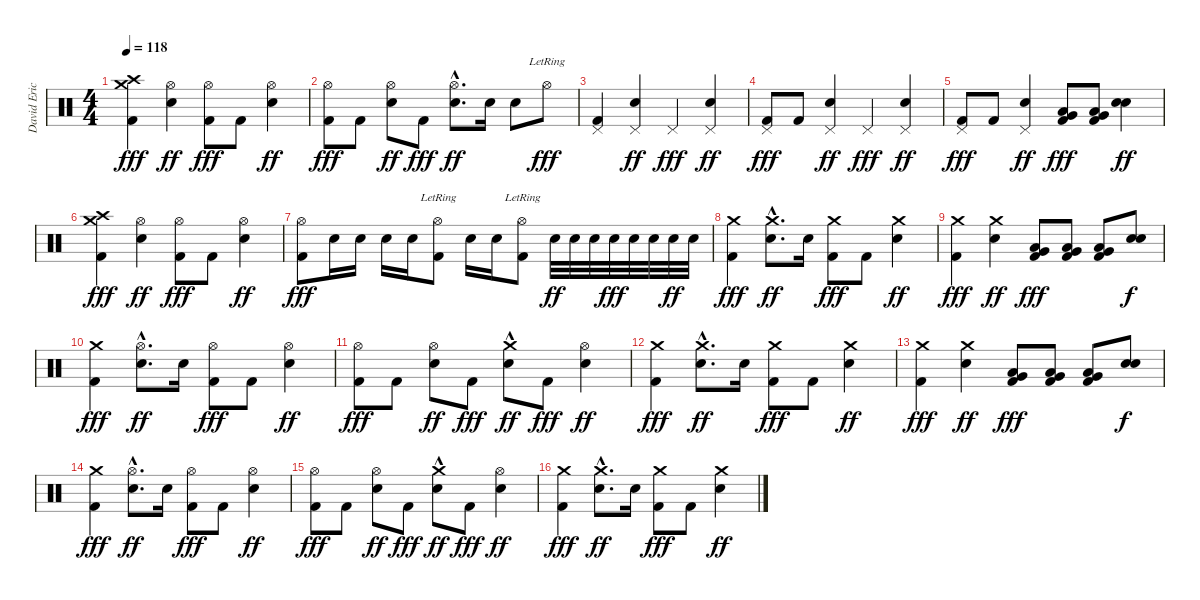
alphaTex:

\track ("David Eric Grohl" "David Eric") {instrument percussion}
\staff {score}
\articulation defaults
\ts (4 4)
\tempo 118
\clef neutral
\ks c
("Crash medium (hit)" "Crash high (hit)" "Kick (hit) 2").4{dy fff} ("Hi-Hat (open)" "Electric Snare (hit)").4{dy ff} ("Hi-Hat (open)" "Kick (hit) 2").8{dy fff} "Kick (hit) 2".8 ("Hi-Hat (open)" "Electric Snare (hit)").4{dy ff} |
("Hi-Hat (open)" "Kick (hit) 2").8{dy fff} "Kick (hit) 2".8 ("Hi-Hat (open)" "Electric Snare (hit)").8{dy ff} "Kick (hit) 2".8{dy fff} ("Hi-Hat (open)"{hac} "Electric Snare (hit)"{hac}).8{d dy ff} "Electric Snare (hit)".16 "Electric Snare (hit)".8 "Hi-Hat (open)"{lr}.8{dy fff} |
("Pedal Hi-Hat (hit)" "Kick (hit) 2").4 ("Pedal Hi-Hat (hit)" "Electric Snare (hit)").4{dy ff} "Pedal Hi-Hat (hit)".4{dy fff} ("Pedal Hi-Hat (hit)" "Electric Snare (hit)").4{dy ff} |
("Pedal Hi-Hat (hit)" "Kick (hit) 2").8{dy fff} "Kick (hit) 2".8 ("Pedal Hi-Hat (hit)" "Electric Snare (hit)").4{dy ff} "Pedal Hi-Hat (hit)".4{dy fff} ("Pedal Hi-Hat (hit)" "Electric Snare (hit)").4{dy ff} |
("Pedal Hi-Hat (hit)" "Kick (hit) 2").8{dy fff} "Kick (hit) 2".8 ("Pedal Hi-Hat (hit)" "Electric Snare (hit)").4{dy ff} ("Low Tom (hit)" "Very Low Tom (hit)" "Kick (hit) 2").8{dy fff} ("Low Tom (hit)" "Very Low Tom (hit)" "Kick (hit) 2").8 ("Electric Snare (hit)" "Electric Snare (hit)").4{dy ff} |
("Crash medium (hit)" "Crash high (hit)" "Kick (hit) 2").4{dy fff} ("Hi-Hat (open)" "Electric Snare (hit)").4{dy ff} ("Hi-Hat (open)" "Kick (hit) 2").8{dy fff} "Kick (hit) 2".8 ("Hi-Hat (open)" "Electric Snare (hit)").4{dy ff} |
("Hi-Hat (open)" "Kick (hit) 2").8{dy fff} "Electric Snare (hit)".16 "Electric Snare (hit)".16 "Electric Snare (hit)".16 "Electric Snare (hit)".16 ("Hi-Hat (open)"{lr} "Kick (hit) 2").8 "Electric Snare (hit)".16 "Electric Snare (hit)".16 ("Hi-Hat (open)"{lr} "Kick (hit) 2").8 "Electric Snare (hit)".32{dy ff} "Electric Snare (hit)".32 "Electric Snare (hit)".32 "Electric Snare (hit)".32{dy fff} "Electric Snare (hit)".32 "Electric Snare (hit)".32 "Electric Snare (hit)".32{dy ff} "Electric Snare (hit)".32 |
("Crash medium (hit)" "Kick (hit) 2").4{dy fff} ("Crash medium (hit)"{hac} "Electric Snare (hit)"{hac}).8{d dy ff} "Electric Snare (hit)".16 ("Crash medium (hit)" "Kick (hit) 2").8{dy fff} "Kick (hit) 2".8 ("Crash medium (hit)" "Electric Snare (hit)").4{dy ff} |
("Crash medium (hit)" "Kick (hit) 2").4{dy fff} ("Crash medium (hit)" "Electric Snare (hit)").4{dy ff} ("Low Tom (hit)" "Very Low Tom (hit)" "Kick (hit) 2").8{dy fff} ("Low Tom (hit)" "Very Low Tom (hit)" "Kick (hit) 2").8 ("Low Tom (hit)" "Very Low Tom (hit)" "Kick (hit) 2").8 ("Electric Snare (hit)" "Electric Snare (hit)").8{dy f} |
("Crash medium (hit)" "Kick (hit) 2").4{dy fff} ("Hi-Hat (open)"{hac} "Electric Snare (hit)"{hac}).8{d dy ff} "Electric Snare (hit)".16 ("Hi-Hat (open)" "Kick (hit) 2").8{dy fff} "Kick (hit) 2".8 ("Hi-Hat (open)" "Electric Snare (hit)").4{dy ff} |
("Hi-Hat (open)" "Kick (hit) 2").8{dy fff} "Kick (hit) 2".8 ("Hi-Hat (open)" "Electric Snare (hit)").8{dy ff} "Kick (hit) 2".8{dy fff} ("Crash medium (hit)"{hac} "Electric Snare (hit)").8{dy ff} "Kick (hit) 2".8{dy fff} ("Hi-Hat (open)" "Electric Snare (hit)").4{dy ff} |
("Crash medium (hit)" "Kick (hit) 2").4{dy fff} ("Crash medium (hit)"{hac} "Electric Snare (hit)"{hac}).8{d dy ff} "Electric Snare (hit)".16 ("Crash medium (hit)" "Kick (hit) 2").8{dy fff} "Kick (hit) 2".8 ("Crash medium (hit)" "Electric Snare (hit)").4{dy ff} |
("Crash medium (hit)" "Kick (hit) 2").4{dy fff} ("Crash medium (hit)" "Electric Snare (hit)").4{dy ff} ("Low Tom (hit)" "Very Low Tom (hit)" "Kick (hit) 2").8{dy fff} ("Low Tom (hit)" "Very Low Tom (hit)" "Kick (hit) 2").8 ("Low Tom (hit)" "Very Low Tom (hit)" "Kick (hit) 2").8 ("Electric Snare (hit)" "Electric Snare (hit)").8{dy f} |
("Crash medium (hit)" "Kick (hit) 2").4{dy fff} ("Hi-Hat (open)"{hac} "Electric Snare (hit)"{hac}).8{d dy ff} "Electric Snare (hit)".16 ("Hi-Hat (open)" "Kick (hit) 2").8{dy fff} "Kick (hit) 2".8 ("Hi-Hat (open)" "Electric Snare (hit)").4{dy ff} |
("Hi-Hat (open)" "Kick (hit) 2").8{dy fff} "Kick (hit) 2".8 ("Hi-Hat (open)" "Electric Snare (hit)").8{dy ff} "Kick (hit) 2".8{dy fff} ("Crash medium (hit)"{hac} "Electric Snare (hit)").8{dy ff} "Kick (hit) 2".8{dy fff} ("Hi-Hat (open)" "Electric Snare (hit)").4{dy ff} |
("Crash medium (hit)" "Kick (hit) 2").4{dy fff} ("Crash medium (hit)"{hac} "Electric Snare (hit)"{hac}).8{d dy ff} "Electric Snare (hit)".16 ("Crash medium (hit)" "Kick (hit) 2").8{dy fff} "Kick (hit) 2".8 ("Crash medium (hit)" "Electric Snare (hit)").4{dy ff}
